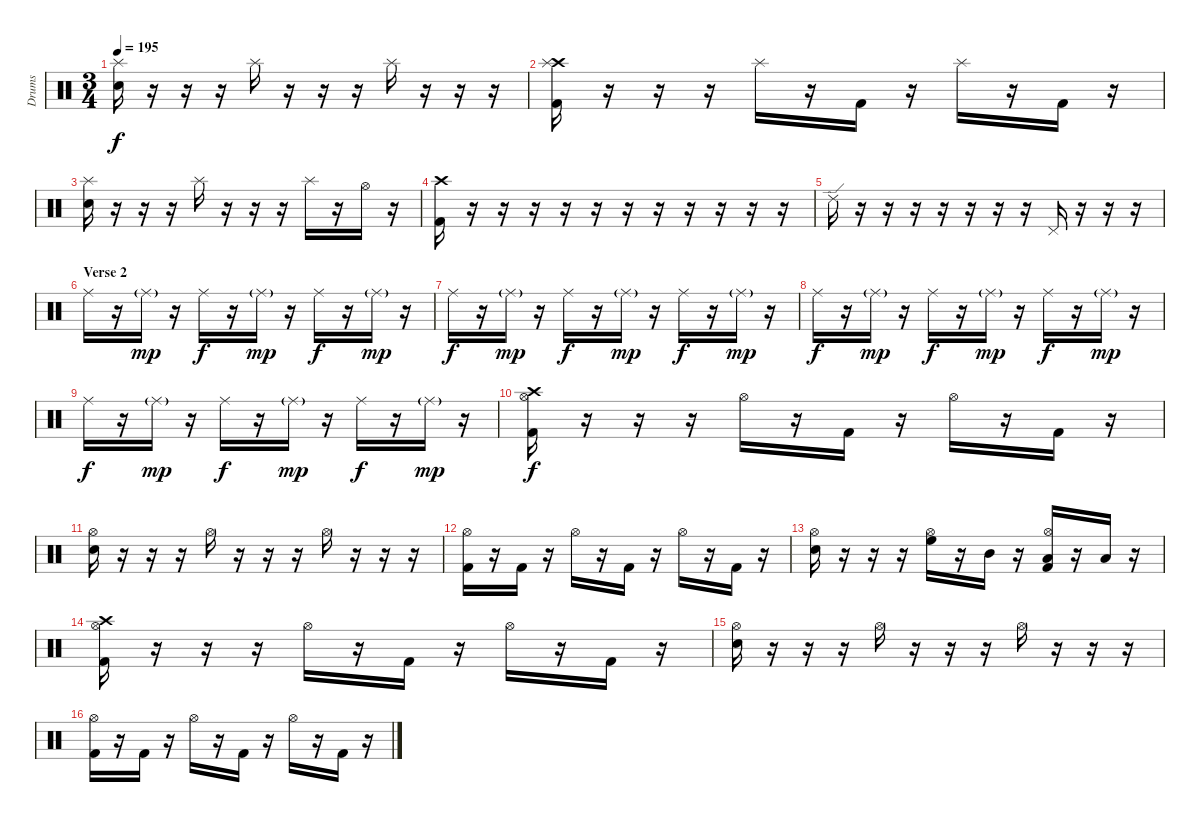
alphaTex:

\track ("Drums" "Drums") {instrument percussion}
\staff {score}
\articulation defaults
\ts (3 4)
\tempo 195
\clef neutral
\ks c
("Splash (hit)" "Snare (hit) 2").16{dy f} r.16 r.16 r.16 "Splash (hit)".16 r.16 r.16 r.16 "Splash (hit)".16 r.16 r.16 r.16 |
("Crash high (hit)" "Splash (hit)" "Kick (hit) 2").16 r.16 r.16 r.16 "Splash (hit)".16 r.16 "Kick (hit) 2".16 r.16 "Splash (hit)".16 r.16 "Kick (hit) 2".16 r.16 |
("Splash (hit)" "Snare (hit) 2").16 r.16 r.16 r.16 "Splash (hit)".16 r.16 r.16 r.16 "Splash (hit)".16 r.16 "Hi-Hat (open)".16 r.16 |
("Crash high (hit)" "Kick (hit) 2").16 r.16 r.16 r.16 r.16 r.16 r.16 r.16 r.16 r.16 r.16 r.16 |
"Ride (edge) 2".16 r.16 r.16 r.16 r.16 r.16 r.16 r.16 "Pedal Hi-Hat (hit)".16 r.16 r.16 r.16 |
\section ("" "Verse 2")
"Ride (middle)".16 r.16 "Ride (middle)"{g}.16{dy mp} r.16 "Ride (middle)".16{dy f} r.16 "Ride (middle)"{g}.16{dy mp} r.16 "Ride (middle)".16{dy f} r.16 "Ride (middle)"{g}.16{dy mp} r.16 |
"Ride (middle)".16{dy f} r.16 "Ride (middle)"{g}.16{dy mp} r.16 "Ride (middle)".16{dy f} r.16 "Ride (middle)"{g}.16{dy mp} r.16 "Ride (middle)".16{dy f} r.16 "Ride (middle)"{g}.16{dy mp} r.16 |
"Ride (middle)".16{dy f} r.16 "Ride (middle)"{g}.16{dy mp} r.16 "Ride (middle)".16{dy f} r.16 "Ride (middle)"{g}.16{dy mp} r.16 "Ride (middle)".16{dy f} r.16 "Ride (middle)"{g}.16{dy mp} r.16 |
"Ride (middle)".16{dy f} r.16 "Ride (middle)"{g}.16{dy mp} r.16 "Ride (middle)".16{dy f} r.16 "Ride (middle)"{g}.16{dy mp} r.16 "Ride (middle)".16{dy f} r.16 "Ride (middle)"{g}.16{dy mp} r.16 |
("Crash high (hit)" "Hi-Hat (open)" "Kick (hit) 2").16{dy f} r.16 r.16 r.16 "Hi-Hat (open)".16 r.16 "Kick (hit) 2".16 r.16 "Hi-Hat (open)".16 r.16 "Kick (hit) 2".16 r.16 |
("Hi-Hat (open)" "Snare (hit) 2").16 r.16 r.16 r.16 "Hi-Hat (open)".16 r.16 r.16 r.16 "Hi-Hat (open)".16 r.16 r.16 r.16 |
("Hi-Hat (open)" "Kick (hit) 2").16 r.16 "Kick (hit) 2".16 r.16 "Hi-Hat (open)".16 r.16 "Kick (hit) 2".16 r.16 "Hi-Hat (open)".16 r.16 "Kick (hit) 2".16 r.16 |
("Hi-Hat (open)" "Snare (hit) 2").16 r.16 r.16 r.16 ("Hi-Hat (open)" "High Floor Tom (hit)").16 r.16 "Mid Tom (hit)".16 r.16 ("Hi-Hat (open)" "Low Tom (hit)" "Kick (hit) 2").16 r.16 "Low Tom (hit)".16 r.16 |
("Crash high (hit)" "Hi-Hat (open)" "Kick (hit) 2").16 r.16 r.16 r.16 "Hi-Hat (open)".16 r.16 "Kick (hit) 2".16 r.16 "Hi-Hat (open)".16 r.16 "Kick (hit) 2".16 r.16 |
("Hi-Hat (open)" "Snare (hit) 2").16 r.16 r.16 r.16 "Hi-Hat (open)".16 r.16 r.16 r.16 "Hi-Hat (open)".16 r.16 r.16 r.16 |
("Hi-Hat (open)" "Kick (hit) 2").16 r.16 "Kick (hit) 2".16 r.16 "Hi-Hat (open)".16 r.16 "Kick (hit) 2".16 r.16 "Hi-Hat (open)".16 r.16 "Kick (hit) 2".16 r.16
